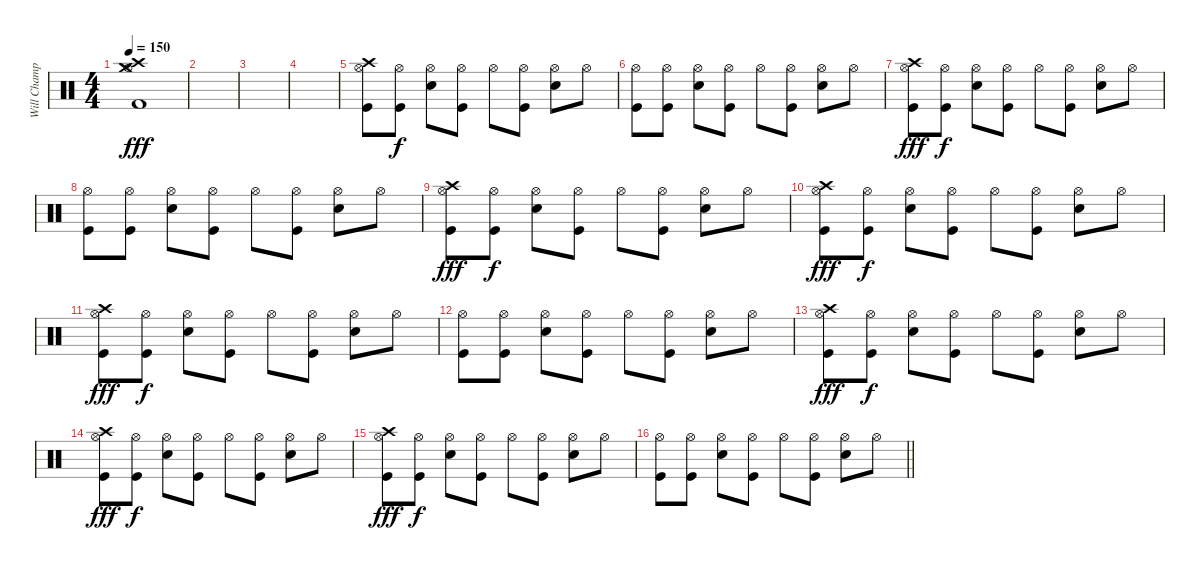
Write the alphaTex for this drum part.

\track ("Will Champion" "Will Champ") {instrument percussion}
\staff {score}
\articulation defaults
\ts (4 4)
\tempo 150
\clef neutral
\ks c
("Hi-Hat (open)" "Crash medium (hit)" "Kick (hit) 2" "Crash high (hit)").1{dy fff} |
|
|
|
("Kick (hit)" "Hi-Hat (open)" "Crash high (hit)").8 ("Kick (hit)" "Hi-Hat (open)").8{dy f} ("Snare (hit) 2" "Hi-Hat (open)").8 ("Kick (hit)" "Hi-Hat (open)").8 "Hi-Hat (open)".8 ("Kick (hit)" "Hi-Hat (open)").8 ("Snare (hit) 2" "Hi-Hat (open)").8 "Hi-Hat (open)".8 |
("Kick (hit)" "Hi-Hat (open)").8 ("Kick (hit)" "Hi-Hat (open)").8 ("Snare (hit) 2" "Hi-Hat (open)").8 ("Kick (hit)" "Hi-Hat (open)").8 "Hi-Hat (open)".8 ("Kick (hit)" "Hi-Hat (open)").8 ("Snare (hit) 2" "Hi-Hat (open)").8 "Hi-Hat (open)".8 |
("Kick (hit)" "Hi-Hat (open)" "Crash high (hit)").8{dy fff} ("Kick (hit)" "Hi-Hat (open)").8{dy f} ("Snare (hit) 2" "Hi-Hat (open)").8 ("Kick (hit)" "Hi-Hat (open)").8 "Hi-Hat (open)".8 ("Kick (hit)" "Hi-Hat (open)").8 ("Snare (hit) 2" "Hi-Hat (open)").8 "Hi-Hat (open)".8 |
("Kick (hit)" "Hi-Hat (open)").8 ("Kick (hit)" "Hi-Hat (open)").8 ("Snare (hit) 2" "Hi-Hat (open)").8 ("Kick (hit)" "Hi-Hat (open)").8 "Hi-Hat (open)".8 ("Kick (hit)" "Hi-Hat (open)").8 ("Snare (hit) 2" "Hi-Hat (open)").8 "Hi-Hat (open)".8 |
("Kick (hit)" "Hi-Hat (open)" "Crash high (hit)").8{dy fff} ("Kick (hit)" "Hi-Hat (open)").8{dy f} ("Snare (hit) 2" "Hi-Hat (open)").8 ("Kick (hit)" "Hi-Hat (open)").8 "Hi-Hat (open)".8 ("Kick (hit)" "Hi-Hat (open)").8 ("Snare (hit) 2" "Hi-Hat (open)").8 "Hi-Hat (open)".8 |
("Kick (hit)" "Hi-Hat (open)" "Crash high (hit)").8{dy fff} ("Kick (hit)" "Hi-Hat (open)").8{dy f} ("Snare (hit) 2" "Hi-Hat (open)").8 ("Kick (hit)" "Hi-Hat (open)").8 "Hi-Hat (open)".8 ("Kick (hit)" "Hi-Hat (open)").8 ("Snare (hit) 2" "Hi-Hat (open)").8 "Hi-Hat (open)".8 |
("Kick (hit)" "Hi-Hat (open)" "Crash high (hit)").8{dy fff} ("Kick (hit)" "Hi-Hat (open)").8{dy f} ("Snare (hit) 2" "Hi-Hat (open)").8 ("Kick (hit)" "Hi-Hat (open)").8 "Hi-Hat (open)".8 ("Kick (hit)" "Hi-Hat (open)").8 ("Snare (hit) 2" "Hi-Hat (open)").8 "Hi-Hat (open)".8 |
("Kick (hit)" "Hi-Hat (open)").8 ("Kick (hit)" "Hi-Hat (open)").8 ("Snare (hit) 2" "Hi-Hat (open)").8 ("Kick (hit)" "Hi-Hat (open)").8 "Hi-Hat (open)".8 ("Kick (hit)" "Hi-Hat (open)").8 ("Snare (hit) 2" "Hi-Hat (open)").8 "Hi-Hat (open)".8 |
("Kick (hit)" "Hi-Hat (open)" "Crash high (hit)").8{dy fff} ("Kick (hit)" "Hi-Hat (open)").8{dy f} ("Snare (hit) 2" "Hi-Hat (open)").8 ("Kick (hit)" "Hi-Hat (open)").8 "Hi-Hat (open)".8 ("Kick (hit)" "Hi-Hat (open)").8 ("Snare (hit) 2" "Hi-Hat (open)").8 "Hi-Hat (open)".8 |
("Kick (hit)" "Hi-Hat (open)" "Crash high (hit)").8{dy fff} ("Kick (hit)" "Hi-Hat (open)").8{dy f} ("Snare (hit) 2" "Hi-Hat (open)").8 ("Kick (hit)" "Hi-Hat (open)").8 "Hi-Hat (open)".8 ("Kick (hit)" "Hi-Hat (open)").8 ("Snare (hit) 2" "Hi-Hat (open)").8 "Hi-Hat (open)".8 |
("Kick (hit)" "Hi-Hat (open)" "Crash high (hit)").8{dy fff} ("Kick (hit)" "Hi-Hat (open)").8{dy f} ("Snare (hit) 2" "Hi-Hat (open)").8 ("Kick (hit)" "Hi-Hat (open)").8 "Hi-Hat (open)".8 ("Kick (hit)" "Hi-Hat (open)").8 ("Snare (hit) 2" "Hi-Hat (open)").8 "Hi-Hat (open)".8 |
\barLineRight lightlight
("Kick (hit)" "Hi-Hat (open)").8 ("Kick (hit)" "Hi-Hat (open)").8 ("Snare (hit) 2" "Hi-Hat (open)").8 ("Kick (hit)" "Hi-Hat (open)").8 "Hi-Hat (open)".8 ("Kick (hit)" "Hi-Hat (open)").8 ("Snare (hit) 2" "Hi-Hat (open)").8 "Hi-Hat (open)".8
